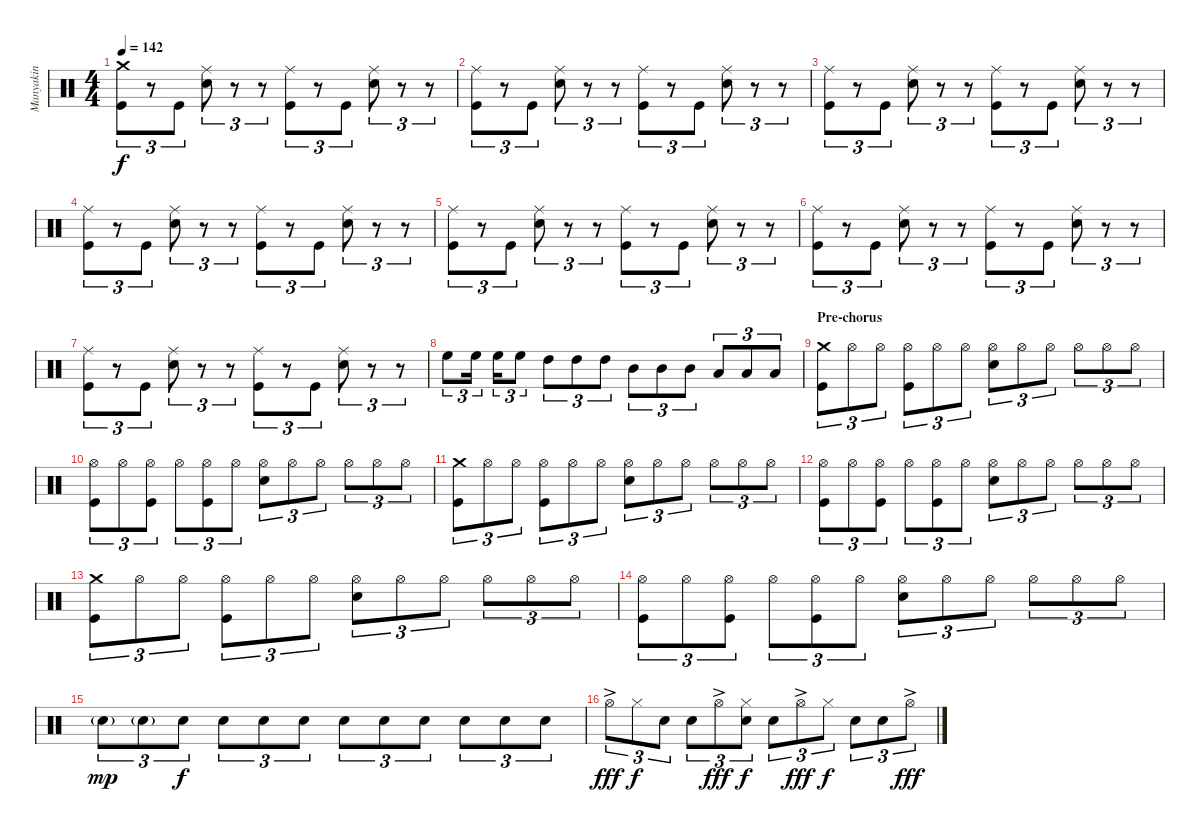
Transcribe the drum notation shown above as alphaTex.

\track ("Manyakin" "Manyakin") {instrument percussion}
\staff {score}
\articulation defaults
\ts (4 4)
\tempo 142
\clef neutral
\ks c
("Kick (hit)" "Crash medium (hit)").8{tu (3 2) dy f} r.8{tu (3 2)} "Kick (hit)".8{tu (3 2)} ("Electric Snare (hit)" "Ride (middle)").8{tu (3 2)} r.8{tu (3 2)} r.8{tu (3 2)} ("Kick (hit)" "Ride (middle)").8{tu (3 2)} r.8{tu (3 2)} "Kick (hit)".8{tu (3 2)} ("Electric Snare (hit)" "Ride (middle)").8{tu (3 2)} r.8{tu (3 2)} r.8{tu (3 2)} |
("Kick (hit)" "Ride (middle)").8{tu (3 2)} r.8{tu (3 2)} "Kick (hit)".8{tu (3 2)} ("Electric Snare (hit)" "Ride (middle)").8{tu (3 2)} r.8{tu (3 2)} r.8{tu (3 2)} ("Kick (hit)" "Ride (middle)").8{tu (3 2)} r.8{tu (3 2)} "Kick (hit)".8{tu (3 2)} ("Electric Snare (hit)" "Ride (middle)").8{tu (3 2)} r.8{tu (3 2)} r.8{tu (3 2)} |
("Kick (hit)" "Ride (middle)").8{tu (3 2)} r.8{tu (3 2)} "Kick (hit)".8{tu (3 2)} ("Electric Snare (hit)" "Ride (middle)").8{tu (3 2)} r.8{tu (3 2)} r.8{tu (3 2)} ("Kick (hit)" "Ride (middle)").8{tu (3 2)} r.8{tu (3 2)} "Kick (hit)".8{tu (3 2)} ("Electric Snare (hit)" "Ride (middle)").8{tu (3 2)} r.8{tu (3 2)} r.8{tu (3 2)} |
("Kick (hit)" "Ride (middle)").8{tu (3 2)} r.8{tu (3 2)} "Kick (hit)".8{tu (3 2)} ("Electric Snare (hit)" "Ride (middle)").8{tu (3 2)} r.8{tu (3 2)} r.8{tu (3 2)} ("Kick (hit)" "Ride (middle)").8{tu (3 2)} r.8{tu (3 2)} "Kick (hit)".8{tu (3 2)} ("Electric Snare (hit)" "Ride (middle)").8{tu (3 2)} r.8{tu (3 2)} r.8{tu (3 2)} |
("Kick (hit)" "Ride (middle)").8{tu (3 2)} r.8{tu (3 2)} "Kick (hit)".8{tu (3 2)} ("Electric Snare (hit)" "Ride (middle)").8{tu (3 2)} r.8{tu (3 2)} r.8{tu (3 2)} ("Kick (hit)" "Ride (middle)").8{tu (3 2)} r.8{tu (3 2)} "Kick (hit)".8{tu (3 2)} ("Electric Snare (hit)" "Ride (middle)").8{tu (3 2)} r.8{tu (3 2)} r.8{tu (3 2)} |
("Kick (hit)" "Ride (middle)").8{tu (3 2)} r.8{tu (3 2)} "Kick (hit)".8{tu (3 2)} ("Electric Snare (hit)" "Ride (middle)").8{tu (3 2)} r.8{tu (3 2)} r.8{tu (3 2)} ("Kick (hit)" "Ride (middle)").8{tu (3 2)} r.8{tu (3 2)} "Kick (hit)".8{tu (3 2)} ("Electric Snare (hit)" "Ride (middle)").8{tu (3 2)} r.8{tu (3 2)} r.8{tu (3 2)} |
("Kick (hit)" "Ride (middle)").8{tu (3 2)} r.8{tu (3 2)} "Kick (hit)".8{tu (3 2)} ("Electric Snare (hit)" "Ride (middle)").8{tu (3 2)} r.8{tu (3 2)} r.8{tu (3 2)} ("Kick (hit)" "Ride (middle)").8{tu (3 2)} r.8{tu (3 2)} "Kick (hit)".8{tu (3 2)} ("Electric Snare (hit)" "Ride (middle)").8{tu (3 2)} r.8{tu (3 2)} r.8{tu (3 2)} |
"High Floor Tom (hit)".8{tu (3 2)} "High Floor Tom (hit)".16{tu (3 2)} "High Floor Tom (hit)".16{tu (3 2)} "High Floor Tom (hit)".8{tu (3 2)} "High Tom (hit)".8{tu (3 2)} "High Tom (hit)".8{tu (3 2)} "High Tom (hit)".8{tu (3 2)} "Mid Tom (hit)".8{tu (3 2)} "Mid Tom (hit)".8{tu (3 2)} "Mid Tom (hit)".8{tu (3 2)} "Low Tom (hit)".8{tu (3 2)} "Low Tom (hit)".8{tu (3 2)} "Low Tom (hit)".8{tu (3 2)} |
\section ("" "Pre-chorus")
("Kick (hit)" "Crash medium (hit)").8{tu (3 2)} "Hi-Hat (open)".8{tu (3 2)} "Hi-Hat (open)".8{tu (3 2)} ("Kick (hit)" "Hi-Hat (open)").8{tu (3 2)} "Hi-Hat (open)".8{tu (3 2)} "Hi-Hat (open)".8{tu (3 2)} ("Electric Snare (hit)" "Hi-Hat (open)").8{tu (3 2)} "Hi-Hat (open)".8{tu (3 2)} "Hi-Hat (open)".8{tu (3 2)} "Hi-Hat (open)".8{tu (3 2)} "Hi-Hat (open)".8{tu (3 2)} "Hi-Hat (open)".8{tu (3 2)} |
("Kick (hit)" "Hi-Hat (open)").8{tu (3 2)} "Hi-Hat (open)".8{tu (3 2)} ("Kick (hit)" "Hi-Hat (open)").8{tu (3 2)} "Hi-Hat (open)".8{tu (3 2)} ("Kick (hit)" "Hi-Hat (open)").8{tu (3 2)} "Hi-Hat (open)".8{tu (3 2)} ("Electric Snare (hit)" "Hi-Hat (open)").8{tu (3 2)} "Hi-Hat (open)".8{tu (3 2)} "Hi-Hat (open)".8{tu (3 2)} "Hi-Hat (open)".8{tu (3 2)} "Hi-Hat (open)".8{tu (3 2)} "Hi-Hat (open)".8{tu (3 2)} |
("Kick (hit)" "Crash medium (hit)").8{tu (3 2)} "Hi-Hat (open)".8{tu (3 2)} "Hi-Hat (open)".8{tu (3 2)} ("Kick (hit)" "Hi-Hat (open)").8{tu (3 2)} "Hi-Hat (open)".8{tu (3 2)} "Hi-Hat (open)".8{tu (3 2)} ("Electric Snare (hit)" "Hi-Hat (open)").8{tu (3 2)} "Hi-Hat (open)".8{tu (3 2)} "Hi-Hat (open)".8{tu (3 2)} "Hi-Hat (open)".8{tu (3 2)} "Hi-Hat (open)".8{tu (3 2)} "Hi-Hat (open)".8{tu (3 2)} |
("Kick (hit)" "Hi-Hat (open)").8{tu (3 2)} "Hi-Hat (open)".8{tu (3 2)} ("Kick (hit)" "Hi-Hat (open)").8{tu (3 2)} "Hi-Hat (open)".8{tu (3 2)} ("Kick (hit)" "Hi-Hat (open)").8{tu (3 2)} "Hi-Hat (open)".8{tu (3 2)} ("Electric Snare (hit)" "Hi-Hat (open)").8{tu (3 2)} "Hi-Hat (open)".8{tu (3 2)} "Hi-Hat (open)".8{tu (3 2)} "Hi-Hat (open)".8{tu (3 2)} "Hi-Hat (open)".8{tu (3 2)} "Hi-Hat (open)".8{tu (3 2)} |
("Kick (hit)" "Crash medium (hit)").8{tu (3 2)} "Hi-Hat (open)".8{tu (3 2)} "Hi-Hat (open)".8{tu (3 2)} ("Kick (hit)" "Hi-Hat (open)").8{tu (3 2)} "Hi-Hat (open)".8{tu (3 2)} "Hi-Hat (open)".8{tu (3 2)} ("Electric Snare (hit)" "Hi-Hat (open)").8{tu (3 2)} "Hi-Hat (open)".8{tu (3 2)} "Hi-Hat (open)".8{tu (3 2)} "Hi-Hat (open)".8{tu (3 2)} "Hi-Hat (open)".8{tu (3 2)} "Hi-Hat (open)".8{tu (3 2)} |
("Kick (hit)" "Hi-Hat (open)").8{tu (3 2)} "Hi-Hat (open)".8{tu (3 2)} ("Kick (hit)" "Hi-Hat (open)").8{tu (3 2)} "Hi-Hat (open)".8{tu (3 2)} ("Kick (hit)" "Hi-Hat (open)").8{tu (3 2)} "Hi-Hat (open)".8{tu (3 2)} ("Electric Snare (hit)" "Hi-Hat (open)").8{tu (3 2)} "Hi-Hat (open)".8{tu (3 2)} "Hi-Hat (open)".8{tu (3 2)} "Hi-Hat (open)".8{tu (3 2)} "Hi-Hat (open)".8{tu (3 2)} "Hi-Hat (open)".8{tu (3 2)} |
"Electric Snare (hit)"{g}.8{tu (3 2) dy mp} "Electric Snare (hit)"{g}.8{tu (3 2)} "Electric Snare (hit)".8{tu (3 2) dy f} "Electric Snare (hit)".8{tu (3 2)} "Electric Snare (hit)".8{tu (3 2)} "Electric Snare (hit)".8{tu (3 2)} "Electric Snare (hit)".8{tu (3 2)} "Electric Snare (hit)".8{tu (3 2)} "Electric Snare (hit)".8{tu (3 2)} "Electric Snare (hit)".8{tu (3 2)} "Electric Snare (hit)".8{tu (3 2)} "Electric Snare (hit)".8{tu (3 2)} |
"Hi-Hat (open)"{ac}.8{tu (3 2) dy fff} "Hi-Hat (closed)".8{tu (3 2) dy f} "Electric Snare (hit)".8{tu (3 2)} "Electric Snare (hit)".8{tu (3 2)} "Hi-Hat (open)"{ac}.8{tu (3 2) dy fff} ("Electric Snare (hit)" "Hi-Hat (closed)").8{tu (3 2) dy f} "Electric Snare (hit)".8{tu (3 2)} "Hi-Hat (open)"{ac}.8{tu (3 2) dy fff} "Hi-Hat (closed)".8{tu (3 2) dy f} "Electric Snare (hit)".8{tu (3 2)} "Electric Snare (hit)".8{tu (3 2)} "Hi-Hat (open)"{ac}.8{tu (3 2) dy fff}
